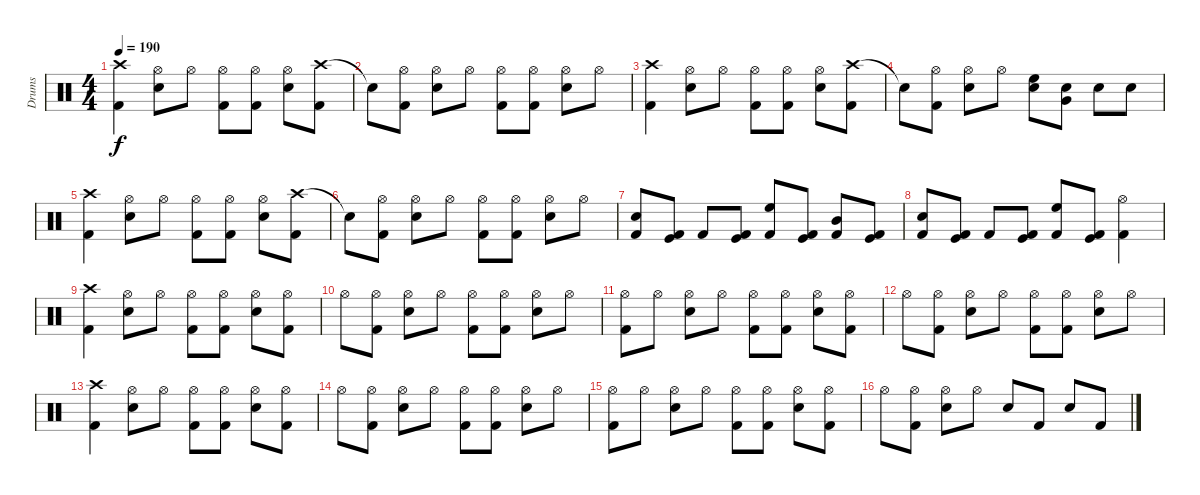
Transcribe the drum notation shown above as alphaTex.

\track ("Drums" "Drums") {instrument percussion}
\staff {score}
\articulation defaults
\ts (4 4)
\tempo 190
\clef neutral
\ks c
("Crash high (hit)" "Kick (hit) 2").4{dy f} ("Hi-Hat (open)" "Electric Snare (hit)").8 "Hi-Hat (open)".8 ("Hi-Hat (open)" "Kick (hit) 2").8 ("Hi-Hat (open)" "Kick (hit) 2").8 ("Hi-Hat (open)" "Electric Snare (hit)").8 ("Crash high (hit)" "Kick (hit) 2").8 |
"Snare (hit)"{t}.8 ("Hi-Hat (open)" "Kick (hit) 2").8 ("Hi-Hat (open)" "Electric Snare (hit)").8 "Hi-Hat (open)".8 ("Hi-Hat (open)" "Kick (hit) 2").8 ("Hi-Hat (open)" "Kick (hit) 2").8 ("Hi-Hat (open)" "Electric Snare (hit)").8 "Hi-Hat (open)".8 |
("Crash high (hit)" "Kick (hit) 2").4 ("Hi-Hat (open)" "Electric Snare (hit)").8 "Hi-Hat (open)".8 ("Hi-Hat (open)" "Kick (hit) 2").8 ("Hi-Hat (open)" "Kick (hit) 2").8 ("Hi-Hat (open)" "Electric Snare (hit)").8 ("Crash high (hit)" "Kick (hit) 2").8 |
"Snare (hit)"{t}.8 ("Hi-Hat (open)" "Kick (hit) 2").8 ("Hi-Hat (open)" "Electric Snare (hit)").8 "Hi-Hat (open)".8 ("High Floor Tom (hit)" "Electric Snare (hit)").8 ("Very Low Tom (hit)" "Electric Snare (hit)").8 "Electric Snare (hit)".8 "Electric Snare (hit)".8 |
("Crash high (hit)" "Kick (hit) 2").4 ("Hi-Hat (open)" "Electric Snare (hit)").8 "Hi-Hat (open)".8 ("Hi-Hat (open)" "Kick (hit) 2").8 ("Hi-Hat (open)" "Kick (hit) 2").8 ("Hi-Hat (open)" "Electric Snare (hit)").8 ("Crash high (hit)" "Kick (hit) 2").8 |
"Snare (hit)"{t}.8 ("Hi-Hat (open)" "Kick (hit) 2").8 ("Hi-Hat (open)" "Electric Snare (hit)").8 "Hi-Hat (open)".8 ("Hi-Hat (open)" "Kick (hit) 2").8 ("Hi-Hat (open)" "Kick (hit) 2").8 ("Hi-Hat (open)" "Electric Snare (hit)").8 "Hi-Hat (open)".8 |
("Electric Snare (hit)" "Kick (hit) 2").8 ("Kick (hit)" "Kick (hit) 2").8 "Kick (hit) 2".8 ("Kick (hit)" "Kick (hit) 2").8 ("High Floor Tom (hit)" "Kick (hit) 2").8 ("Kick (hit)" "Kick (hit) 2").8 ("Mid Tom (hit)" "Kick (hit) 2").8 ("Kick (hit)" "Kick (hit) 2").8 |
("Electric Snare (hit)" "Kick (hit) 2").8 ("Kick (hit)" "Kick (hit) 2").8 "Kick (hit) 2".8 ("Kick (hit)" "Kick (hit) 2").8 ("High Floor Tom (hit)" "Kick (hit) 2").8 ("Kick (hit)" "Kick (hit) 2").8 ("Hi-Hat (open)" "Kick (hit) 2").4 |
("Crash high (hit)" "Kick (hit) 2").4 ("Hi-Hat (open)" "Electric Snare (hit)").8 "Hi-Hat (open)".8 ("Hi-Hat (open)" "Kick (hit) 2").8 ("Hi-Hat (open)" "Kick (hit) 2").8 ("Hi-Hat (open)" "Electric Snare (hit)").8 ("Hi-Hat (open)" "Kick (hit) 2").8 |
"Hi-Hat (open)".8 ("Hi-Hat (open)" "Kick (hit) 2").8 ("Hi-Hat (open)" "Electric Snare (hit)").8 "Hi-Hat (open)".8 ("Hi-Hat (open)" "Kick (hit) 2").8 ("Hi-Hat (open)" "Kick (hit) 2").8 ("Hi-Hat (open)" "Electric Snare (hit)").8 "Hi-Hat (open)".8 |
("Hi-Hat (open)" "Kick (hit) 2").8 "Hi-Hat (open)".8 ("Hi-Hat (open)" "Electric Snare (hit)").8 "Hi-Hat (open)".8 ("Hi-Hat (open)" "Kick (hit) 2").8 ("Hi-Hat (open)" "Kick (hit) 2").8 ("Hi-Hat (open)" "Electric Snare (hit)").8 ("Hi-Hat (open)" "Kick (hit) 2").8 |
"Hi-Hat (open)".8 ("Hi-Hat (open)" "Kick (hit) 2").8 ("Hi-Hat (open)" "Electric Snare (hit)").8 "Hi-Hat (open)".8 ("Hi-Hat (open)" "Kick (hit) 2").8 ("Hi-Hat (open)" "Kick (hit) 2").8 ("Hi-Hat (open)" "Electric Snare (hit)").8 "Hi-Hat (open)".8 |
("Crash high (hit)" "Kick (hit) 2").4 ("Hi-Hat (open)" "Electric Snare (hit)").8 "Hi-Hat (open)".8 ("Hi-Hat (open)" "Kick (hit) 2").8 ("Hi-Hat (open)" "Kick (hit) 2").8 ("Hi-Hat (open)" "Electric Snare (hit)").8 ("Hi-Hat (open)" "Kick (hit) 2").8 |
"Hi-Hat (open)".8 ("Hi-Hat (open)" "Kick (hit) 2").8 ("Hi-Hat (open)" "Electric Snare (hit)").8 "Hi-Hat (open)".8 ("Hi-Hat (open)" "Kick (hit) 2").8 ("Hi-Hat (open)" "Kick (hit) 2").8 ("Hi-Hat (open)" "Electric Snare (hit)").8 "Hi-Hat (open)".8 |
("Hi-Hat (open)" "Kick (hit) 2").8 "Hi-Hat (open)".8 ("Hi-Hat (open)" "Electric Snare (hit)").8 "Hi-Hat (open)".8 ("Hi-Hat (open)" "Kick (hit) 2").8 ("Hi-Hat (open)" "Kick (hit) 2").8 ("Hi-Hat (open)" "Electric Snare (hit)").8 ("Hi-Hat (open)" "Kick (hit) 2").8 |
"Hi-Hat (open)".8 ("Hi-Hat (open)" "Kick (hit) 2").8 ("Hi-Hat (open)" "Electric Snare (hit)").8 "Hi-Hat (open)".8 "Electric Snare (hit)".8 "Kick (hit) 2".8 "Electric Snare (hit)".8 "Kick (hit) 2".8
